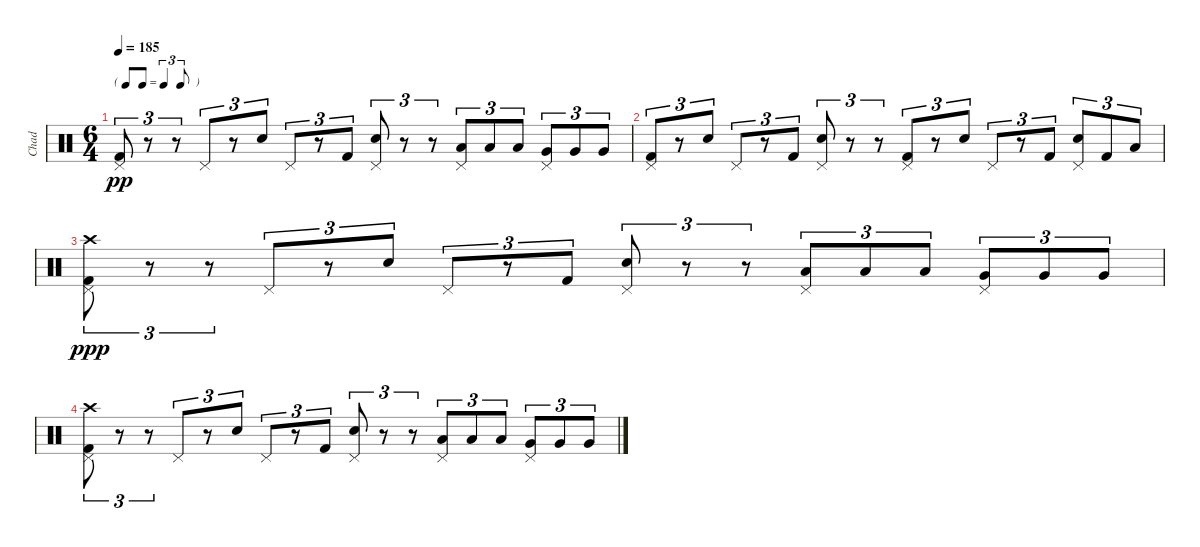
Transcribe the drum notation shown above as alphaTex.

\track ("Chad" "Chad") {instrument percussion}
\staff {score}
\articulation defaults
\ts (6 4)
\tf triplet8th
\tempo 185
\clef neutral
\ks c
("Kick (hit) 2" "Pedal Hi-Hat (hit)").8{tu (3 2) dy pp} r.8{tu (3 2)} r.8{tu (3 2)} "Pedal Hi-Hat (hit)".8{tu (3 2)} r.8{tu (3 2)} "Electric Snare (hit)".8{tu (3 2)} "Pedal Hi-Hat (hit)".8{tu (3 2)} r.8{tu (3 2)} "Kick (hit) 2".8{tu (3 2)} ("Electric Snare (hit)" "Pedal Hi-Hat (hit)").8{tu (3 2)} r.8{tu (3 2)} r.8{tu (3 2)} ("Low Tom (hit)" "Pedal Hi-Hat (hit)").8{tu (3 2)} "Low Tom (hit)".8{tu (3 2)} "Low Tom (hit)".8{tu (3 2)} ("Very Low Tom (hit)" "Pedal Hi-Hat (hit)").8{tu (3 2)} "Very Low Tom (hit)".8{tu (3 2)} "Very Low Tom (hit)".8{tu (3 2)} |
("Kick (hit) 2" "Pedal Hi-Hat (hit)").8{tu (3 2)} r.8{tu (3 2)} "Electric Snare (hit)".8{tu (3 2)} "Pedal Hi-Hat (hit)".8{tu (3 2)} r.8{tu (3 2)} "Kick (hit) 2".8{tu (3 2)} ("Electric Snare (hit)" "Pedal Hi-Hat (hit)").8{tu (3 2)} r.8{tu (3 2)} r.8{tu (3 2)} ("Kick (hit) 2" "Pedal Hi-Hat (hit)").8{tu (3 2)} r.8{tu (3 2)} "Electric Snare (hit)".8{tu (3 2)} "Pedal Hi-Hat (hit)".8{tu (3 2)} r.8{tu (3 2)} "Kick (hit) 2".8{tu (3 2)} ("Electric Snare (hit)" "Pedal Hi-Hat (hit)").8{tu (3 2)} "Kick (hit) 2".8{tu (3 2)} "Low Tom (hit)".8{tu (3 2)} |
("Kick (hit) 2" "Pedal Hi-Hat (hit)" "Crash high (hit)").8{tu (3 2) dy ppp} r.8{tu (3 2)} r.8{tu (3 2)} "Pedal Hi-Hat (hit)".8{tu (3 2)} r.8{tu (3 2)} "Electric Snare (hit)".8{tu (3 2)} "Pedal Hi-Hat (hit)".8{tu (3 2)} r.8{tu (3 2)} "Kick (hit) 2".8{tu (3 2)} ("Electric Snare (hit)" "Pedal Hi-Hat (hit)").8{tu (3 2)} r.8{tu (3 2)} r.8{tu (3 2)} ("Low Tom (hit)" "Pedal Hi-Hat (hit)").8{tu (3 2)} "Low Tom (hit)".8{tu (3 2)} "Low Tom (hit)".8{tu (3 2)} ("Very Low Tom (hit)" "Pedal Hi-Hat (hit)").8{tu (3 2)} "Very Low Tom (hit)".8{tu (3 2)} "Very Low Tom (hit)".8{tu (3 2)} |
("Kick (hit) 2" "Pedal Hi-Hat (hit)" "Crash high (hit)").8{tu (3 2)} r.8{tu (3 2)} r.8{tu (3 2)} "Pedal Hi-Hat (hit)".8{tu (3 2)} r.8{tu (3 2)} "Electric Snare (hit)".8{tu (3 2)} "Pedal Hi-Hat (hit)".8{tu (3 2)} r.8{tu (3 2)} "Kick (hit) 2".8{tu (3 2)} ("Electric Snare (hit)" "Pedal Hi-Hat (hit)").8{tu (3 2)} r.8{tu (3 2)} r.8{tu (3 2)} ("Low Tom (hit)" "Pedal Hi-Hat (hit)").8{tu (3 2)} "Low Tom (hit)".8{tu (3 2)} "Low Tom (hit)".8{tu (3 2)} ("Very Low Tom (hit)" "Pedal Hi-Hat (hit)").8{tu (3 2)} "Very Low Tom (hit)".8{tu (3 2)} "Very Low Tom (hit)".8{tu (3 2)}
